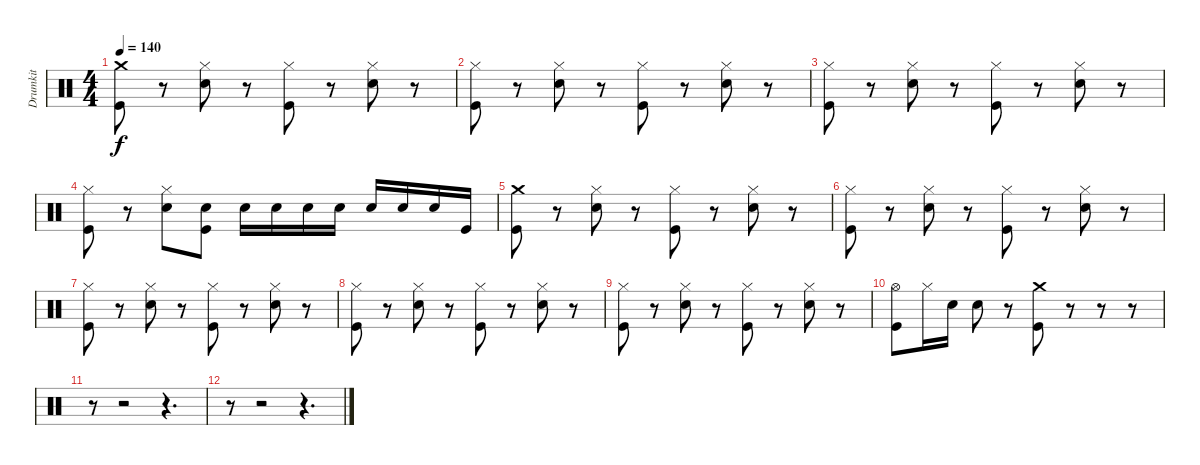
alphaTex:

\track ("Drumkit" "Drumkit") {instrument percussion}
\staff {score}
\articulation defaults
\ts (4 4)
\tempo 140
\clef neutral
\ks c
("Crash medium (hit)" "Kick (hit)").8{dy f} r.8 ("Hi-Hat (closed)" "Snare (hit) 2").8 r.8 ("Hi-Hat (closed)" "Kick (hit)").8 r.8 ("Hi-Hat (closed)" "Snare (hit) 2").8 r.8 |
("Hi-Hat (closed)" "Kick (hit)").8 r.8 ("Hi-Hat (closed)" "Snare (hit) 2").8 r.8 ("Hi-Hat (closed)" "Kick (hit)").8 r.8 ("Hi-Hat (closed)" "Snare (hit) 2").8 r.8 |
("Hi-Hat (closed)" "Kick (hit)").8 r.8 ("Hi-Hat (closed)" "Snare (hit) 2").8 r.8 ("Hi-Hat (closed)" "Kick (hit)").8 r.8 ("Hi-Hat (closed)" "Snare (hit) 2").8 r.8 |
("Hi-Hat (closed)" "Kick (hit)").8 r.8 ("Hi-Hat (closed)" "Snare (hit) 2").8 ("Snare (hit) 2" "Kick (hit)").8 "Snare (hit) 2".16 "Snare (hit) 2".16 "Snare (hit) 2".16 "Snare (hit) 2".16 "Snare (hit) 2".16 "Snare (hit) 2".16 "Snare (hit) 2".16 "Kick (hit)".16 |
("Crash medium (hit)" "Kick (hit)").8 r.8 ("Hi-Hat (closed)" "Snare (hit) 2").8 r.8 ("Hi-Hat (closed)" "Kick (hit)").8 r.8 ("Hi-Hat (closed)" "Snare (hit) 2").8 r.8 |
("Hi-Hat (closed)" "Kick (hit)").8 r.8 ("Hi-Hat (closed)" "Snare (hit) 2").8 r.8 ("Hi-Hat (closed)" "Kick (hit)").8 r.8 ("Hi-Hat (closed)" "Snare (hit) 2").8 r.8 |
("Hi-Hat (closed)" "Kick (hit)").8 r.8 ("Hi-Hat (closed)" "Snare (hit) 2").8 r.8 ("Hi-Hat (closed)" "Kick (hit)").8 r.8 ("Hi-Hat (closed)" "Snare (hit) 2").8 r.8 |
("Hi-Hat (closed)" "Kick (hit)").8 r.8 ("Hi-Hat (closed)" "Snare (hit) 2").8 r.8 ("Hi-Hat (closed)" "Kick (hit)").8 r.8 ("Hi-Hat (closed)" "Snare (hit) 2").8 r.8 |
("Hi-Hat (closed)" "Kick (hit)").8 r.8 ("Hi-Hat (closed)" "Snare (hit) 2").8 r.8 ("Hi-Hat (closed)" "Kick (hit)").8 r.8 ("Hi-Hat (closed)" "Snare (hit) 2").8 r.8 |
("Hi-Hat (open)" "Kick (hit)").8 "Hi-Hat (closed)".16 "Snare (hit) 2".16 "Snare (hit) 2".8 r.8 ("Crash medium (hit)" "Kick (hit)").8 r.8 r.8 r.8 |
r.8 r.2 r.4{d} |
r.8 r.2 r.4{d}
